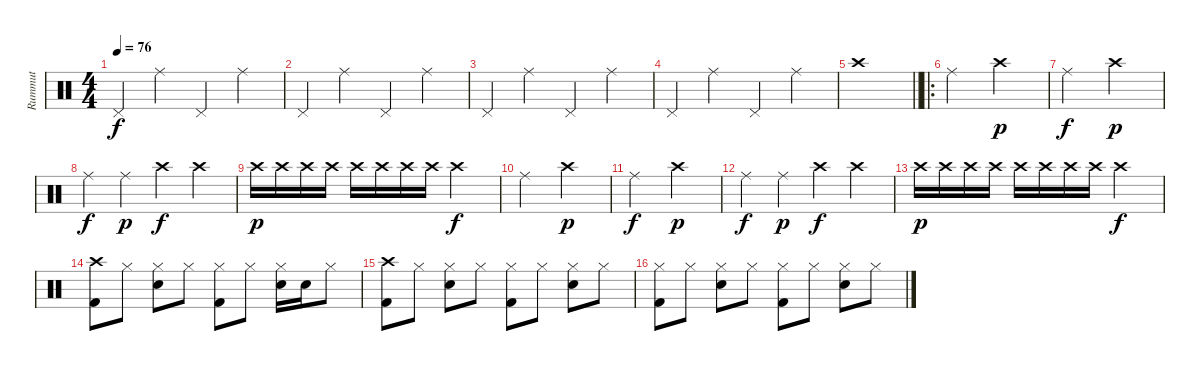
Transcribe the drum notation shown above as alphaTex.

\track ("Rummut" "Rummut") {instrument percussion}
\staff {score}
\articulation defaults
\ts (4 4)
\tempo 76
\clef neutral
\ks c "Pedal Hi-Hat (hit)".4{dy f} "Ride (middle)".4 "Pedal Hi-Hat (hit)".4 "Ride (middle)".4
|
"Pedal Hi-Hat (hit)".4 "Ride (middle)".4 "Pedal Hi-Hat (hit)".4 "Ride (middle)".4 |
"Pedal Hi-Hat (hit)".4 "Ride (middle)".4 "Pedal Hi-Hat (hit)".4 "Ride (middle)".4 |
"Pedal Hi-Hat (hit)".4 "Ride (middle)".4 "Pedal Hi-Hat (hit)".4 "Ride (middle)".4 |
\barLineRight lightlight "Crash high (hit)".1
|
\ro "Ride (middle)".2 "Crash high (hit)".2{dy p}
|
"Ride (middle)".2{dy f} "Crash high (hit)".2{dy p} |
"Ride (middle)".4{dy f} "Ride (middle)".4{dy p} "Crash high (hit)".4{dy f} "Crash high (hit)".4 |
"Crash high (hit)".16{dy p} "Crash high (hit)".16 "Crash high (hit)".16 "Crash high (hit)".16 "Crash high (hit)".16 "Crash high (hit)".16 "Crash high (hit)".16 "Crash high (hit)".16 "Crash high (hit)".2{dy f} |
"Ride (middle)".2 "Crash high (hit)".2{dy p} |
"Ride (middle)".2{dy f} "Crash high (hit)".2{dy p} |
"Ride (middle)".4{dy f} "Ride (middle)".4{dy p} "Crash high (hit)".4{dy f} "Crash high (hit)".4 |
"Crash high (hit)".16{dy p} "Crash high (hit)".16 "Crash high (hit)".16 "Crash high (hit)".16 "Crash high (hit)".16 "Crash high (hit)".16 "Crash high (hit)".16 "Crash high (hit)".16 "Crash high (hit)".2{dy f} |
("Kick (hit) 2" "Crash high (hit)").8 "Hi-Hat (closed)".8 ("Snare (hit) 2" "Hi-Hat (closed)").8 "Hi-Hat (closed)".8 ("Kick (hit) 2" "Hi-Hat (closed)").8 "Hi-Hat (closed)".8 ("Snare (hit) 2" "Hi-Hat (closed)").16 "Snare (hit) 2".16 "Hi-Hat (closed)".8 |
("Kick (hit) 2" "Crash high (hit)").8 "Hi-Hat (closed)".8 ("Snare (hit) 2" "Hi-Hat (closed)").8 "Hi-Hat (closed)".8 ("Kick (hit) 2" "Hi-Hat (closed)").8 "Hi-Hat (closed)".8 ("Snare (hit) 2" "Hi-Hat (closed)").8 "Hi-Hat (closed)".8 |
("Kick (hit) 2" "Hi-Hat (closed)").8 "Hi-Hat (closed)".8 ("Snare (hit) 2" "Hi-Hat (closed)").8 "Hi-Hat (closed)".8 ("Kick (hit) 2" "Hi-Hat (closed)").8 "Hi-Hat (closed)".8 ("Snare (hit) 2" "Hi-Hat (closed)").8 "Hi-Hat (closed)".8
